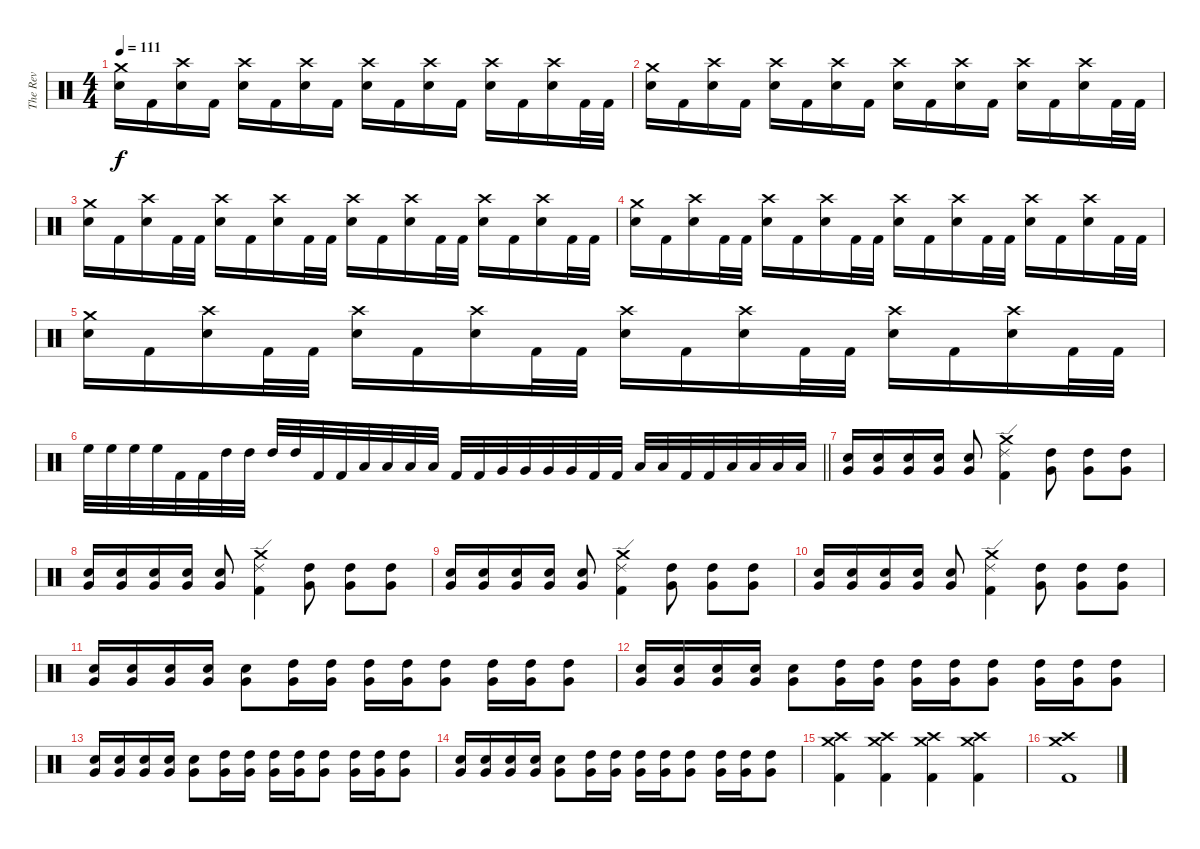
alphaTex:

\track ("The Rev" "The Rev") {instrument percussion}
\staff {score}
\articulation defaults
\ts (4 4)
\tempo 111
\clef neutral
\ks c
("Crash medium (hit)" "Snare (hit) 2").16{dy f} "Kick (hit) 2".16 ("Crash high (hit)" "Snare (hit) 2").16 "Kick (hit) 2".16 ("Crash high (hit)" "Snare (hit) 2").16 "Kick (hit) 2".16 ("Crash high (hit)" "Snare (hit) 2").16 "Kick (hit) 2".16 ("Crash high (hit)" "Snare (hit) 2").16 "Kick (hit) 2".16 ("Crash high (hit)" "Snare (hit) 2").16 "Kick (hit) 2".16 ("Crash high (hit)" "Snare (hit) 2").16 "Kick (hit) 2".16 ("Crash high (hit)" "Snare (hit) 2").16 "Kick (hit) 2".32 "Kick (hit) 2".32 |
("Crash medium (hit)" "Snare (hit) 2").16 "Kick (hit) 2".16 ("Crash high (hit)" "Snare (hit) 2").16 "Kick (hit) 2".16 ("Crash high (hit)" "Snare (hit) 2").16 "Kick (hit) 2".16 ("Crash high (hit)" "Snare (hit) 2").16 "Kick (hit) 2".16 ("Crash high (hit)" "Snare (hit) 2").16 "Kick (hit) 2".16 ("Crash high (hit)" "Snare (hit) 2").16 "Kick (hit) 2".16 ("Crash high (hit)" "Snare (hit) 2").16 "Kick (hit) 2".16 ("Crash high (hit)" "Snare (hit) 2").16 "Kick (hit) 2".32 "Kick (hit) 2".32 |
("Crash medium (hit)" "Snare (hit) 2").16 "Kick (hit) 2".16 ("Crash high (hit)" "Snare (hit) 2").16 "Kick (hit) 2".32 "Kick (hit) 2".32 ("Crash high (hit)" "Snare (hit) 2").16 "Kick (hit) 2".16 ("Crash high (hit)" "Snare (hit) 2").16 "Kick (hit) 2".32 "Kick (hit) 2".32 ("Crash high (hit)" "Snare (hit) 2").16 "Kick (hit) 2".16 ("Crash high (hit)" "Snare (hit) 2").16 "Kick (hit) 2".32 "Kick (hit) 2".32 ("Crash high (hit)" "Snare (hit) 2").16 "Kick (hit) 2".16 ("Crash high (hit)" "Snare (hit) 2").16 "Kick (hit) 2".32 "Kick (hit) 2".32 |
("Crash medium (hit)" "Snare (hit) 2").16 "Kick (hit) 2".16 ("Crash high (hit)" "Snare (hit) 2").16 "Kick (hit) 2".32 "Kick (hit) 2".32 ("Crash high (hit)" "Snare (hit) 2").16 "Kick (hit) 2".16 ("Crash high (hit)" "Snare (hit) 2").16 "Kick (hit) 2".32 "Kick (hit) 2".32 ("Crash high (hit)" "Snare (hit) 2").16 "Kick (hit) 2".16 ("Crash high (hit)" "Snare (hit) 2").16 "Kick (hit) 2".32 "Kick (hit) 2".32 ("Crash high (hit)" "Snare (hit) 2").16 "Kick (hit) 2".16 ("Crash high (hit)" "Snare (hit) 2").16 "Kick (hit) 2".32 "Kick (hit) 2".32 |
("Crash medium (hit)" "Snare (hit) 2").16 "Kick (hit) 2".16 ("Crash high (hit)" "Snare (hit) 2").16 "Kick (hit) 2".32 "Kick (hit) 2".32 ("Crash high (hit)" "Snare (hit) 2").16 "Kick (hit) 2".16 ("Crash high (hit)" "Snare (hit) 2").16 "Kick (hit) 2".32 "Kick (hit) 2".32 ("Crash high (hit)" "Snare (hit) 2").16 "Kick (hit) 2".16 ("Crash high (hit)" "Snare (hit) 2").16 "Kick (hit) 2".32 "Kick (hit) 2".32 ("Crash high (hit)" "Snare (hit) 2").16 "Kick (hit) 2".16 ("Crash high (hit)" "Snare (hit) 2").16 "Kick (hit) 2".32 "Kick (hit) 2".32 |
\barLineRight lightlight "High Floor Tom (hit)".32 "High Floor Tom (hit)".32 "High Floor Tom (hit)".32 "High Floor Tom (hit)".32 "Kick (hit) 2".32 "Kick (hit) 2".32 "High Tom (hit)".32 "High Tom (hit)".32 "High Tom (hit)".32 "High Tom (hit)".32 "Kick (hit) 2".32 "Kick (hit) 2".32 "Low Tom (hit)".32 "Low Tom (hit)".32 "Low Tom (hit)".32 "Low Tom (hit)".32 "Kick (hit) 2".32 "Kick (hit) 2".32 "Very Low Tom (hit)".32 "Very Low Tom (hit)".32 "Very Low Tom (hit)".32 "Very Low Tom (hit)".32 "Kick (hit) 2".32 "Kick (hit) 2".32 "Low Floor Tom (hit)".32 "Low Floor Tom (hit)".32 "Kick (hit) 2".32 "Kick (hit) 2".32 "Low Floor Tom (hit)".32 "Low Floor Tom (hit)".32 "Low Floor Tom (hit)".32 "Low Floor Tom (hit)".32
|
("Snare (hit) 2" "Very Low Tom (hit)").16 ("Snare (hit) 2" "Very Low Tom (hit)").16 ("Snare (hit) 2" "Very Low Tom (hit)").16 ("Snare (hit) 2" "Very Low Tom (hit)").16 ("Snare (hit) 2" "Very Low Tom (hit)").8 ("Crash medium (hit)" "Ride (edge) 2" "Kick (hit) 2").4 ("High Tom (hit)" "Very Low Tom (hit)").8 ("High Tom (hit)" "Very Low Tom (hit)").8 ("High Tom (hit)" "Very Low Tom (hit)").8 |
("Snare (hit) 2" "Very Low Tom (hit)").16 ("Snare (hit) 2" "Very Low Tom (hit)").16 ("Snare (hit) 2" "Very Low Tom (hit)").16 ("Snare (hit) 2" "Very Low Tom (hit)").16 ("Snare (hit) 2" "Very Low Tom (hit)").8 ("Crash medium (hit)" "Ride (edge) 2" "Kick (hit) 2").4 ("High Tom (hit)" "Very Low Tom (hit)").8 ("High Tom (hit)" "Very Low Tom (hit)").8 ("High Tom (hit)" "Very Low Tom (hit)").8 |
("Snare (hit) 2" "Very Low Tom (hit)").16 ("Snare (hit) 2" "Very Low Tom (hit)").16 ("Snare (hit) 2" "Very Low Tom (hit)").16 ("Snare (hit) 2" "Very Low Tom (hit)").16 ("Snare (hit) 2" "Very Low Tom (hit)").8 ("Crash medium (hit)" "Ride (edge) 2" "Kick (hit) 2").4 ("High Tom (hit)" "Very Low Tom (hit)").8 ("High Tom (hit)" "Very Low Tom (hit)").8 ("High Tom (hit)" "Very Low Tom (hit)").8 |
("Snare (hit) 2" "Very Low Tom (hit)").16 ("Snare (hit) 2" "Very Low Tom (hit)").16 ("Snare (hit) 2" "Very Low Tom (hit)").16 ("Snare (hit) 2" "Very Low Tom (hit)").16 ("Snare (hit) 2" "Very Low Tom (hit)").8 ("Crash medium (hit)" "Ride (edge) 2" "Kick (hit) 2").4 ("High Tom (hit)" "Very Low Tom (hit)").8 ("High Tom (hit)" "Very Low Tom (hit)").8 ("High Tom (hit)" "Very Low Tom (hit)").8 |
("Snare (hit) 2" "Very Low Tom (hit)").16 ("Snare (hit) 2" "Very Low Tom (hit)").16 ("Snare (hit) 2" "Very Low Tom (hit)").16 ("Snare (hit) 2" "Very Low Tom (hit)").16 ("Snare (hit) 2" "Very Low Tom (hit)").8 ("High Tom (hit)" "Very Low Tom (hit)").16 ("High Tom (hit)" "Very Low Tom (hit)").16 ("High Tom (hit)" "Very Low Tom (hit)").16 ("High Tom (hit)" "Very Low Tom (hit)").16 ("High Tom (hit)" "Very Low Tom (hit)").8 ("High Tom (hit)" "Very Low Tom (hit)").16 ("High Tom (hit)" "Very Low Tom (hit)").16 ("High Tom (hit)" "Very Low Tom (hit)").8 |
("Snare (hit) 2" "Very Low Tom (hit)").16 ("Snare (hit) 2" "Very Low Tom (hit)").16 ("Snare (hit) 2" "Very Low Tom (hit)").16 ("Snare (hit) 2" "Very Low Tom (hit)").16 ("Snare (hit) 2" "Very Low Tom (hit)").8 ("High Tom (hit)" "Very Low Tom (hit)").16 ("High Tom (hit)" "Very Low Tom (hit)").16 ("High Tom (hit)" "Very Low Tom (hit)").16 ("High Tom (hit)" "Very Low Tom (hit)").16 ("High Tom (hit)" "Very Low Tom (hit)").8 ("High Tom (hit)" "Very Low Tom (hit)").16 ("High Tom (hit)" "Very Low Tom (hit)").16 ("High Tom (hit)" "Very Low Tom (hit)").8 |
("Snare (hit) 2" "Very Low Tom (hit)").16 ("Snare (hit) 2" "Very Low Tom (hit)").16 ("Snare (hit) 2" "Very Low Tom (hit)").16 ("Snare (hit) 2" "Very Low Tom (hit)").16 ("Snare (hit) 2" "Very Low Tom (hit)").8 ("High Tom (hit)" "Very Low Tom (hit)").16 ("High Tom (hit)" "Very Low Tom (hit)").16 ("High Tom (hit)" "Very Low Tom (hit)").16 ("High Tom (hit)" "Very Low Tom (hit)").16 ("High Tom (hit)" "Very Low Tom (hit)").8 ("High Tom (hit)" "Very Low Tom (hit)").16 ("High Tom (hit)" "Very Low Tom (hit)").16 ("High Tom (hit)" "Very Low Tom (hit)").8 |
("Snare (hit) 2" "Very Low Tom (hit)").16 ("Snare (hit) 2" "Very Low Tom (hit)").16 ("Snare (hit) 2" "Very Low Tom (hit)").16 ("Snare (hit) 2" "Very Low Tom (hit)").16 ("Snare (hit) 2" "Very Low Tom (hit)").8 ("High Tom (hit)" "Very Low Tom (hit)").16 ("High Tom (hit)" "Very Low Tom (hit)").16 ("High Tom (hit)" "Very Low Tom (hit)").16 ("High Tom (hit)" "Very Low Tom (hit)").16 ("High Tom (hit)" "Very Low Tom (hit)").8 ("High Tom (hit)" "Very Low Tom (hit)").16 ("High Tom (hit)" "Very Low Tom (hit)").16 ("High Tom (hit)" "Very Low Tom (hit)").8 |
("Crash medium (hit)" "Crash high (hit)" "Kick (hit) 2").4 ("Crash medium (hit)" "Crash high (hit)" "Kick (hit) 2").4 ("Crash medium (hit)" "Crash high (hit)" "Kick (hit) 2").4 ("Crash medium (hit)" "Crash high (hit)" "Kick (hit) 2").4 |
("Crash medium (hit)" "Crash high (hit)" "Kick (hit) 2").1{volume 4}
